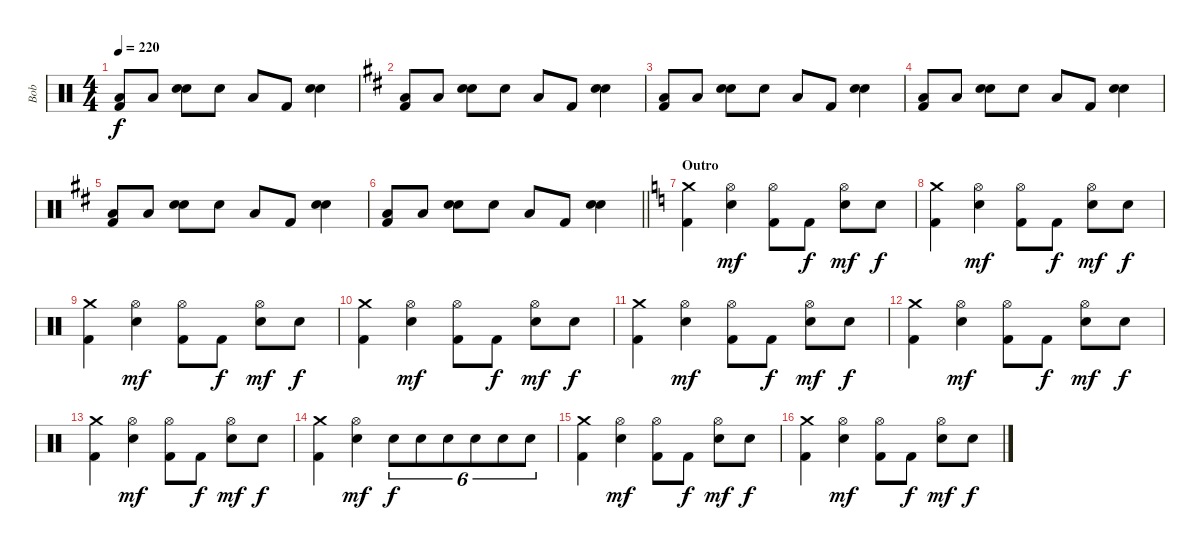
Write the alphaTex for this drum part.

\track ("Bob" "Bob") {instrument percussion}
\staff {score}
\articulation defaults
\ts (4 4)
\tempo 220
\clef neutral
\ks c
("Low Floor Tom (hit)" "Kick (hit) 2").8{dy f} "Low Floor Tom (hit)".8 ("Hand Clap (hit)" "Electric Snare (hit)").8 "Hand Clap (hit)".8 "Low Floor Tom (hit)".8 "Kick (hit) 2".8 ("Hand Clap (hit)" "Electric Snare (hit)").4 |
\ks d
("Low Floor Tom (hit)" "Kick (hit) 2").8 "Low Floor Tom (hit)".8 ("Hand Clap (hit)" "Electric Snare (hit)").8 "Hand Clap (hit)".8 "Low Floor Tom (hit)".8 "Kick (hit) 2".8 ("Hand Clap (hit)" "Electric Snare (hit)").4 |
("Low Floor Tom (hit)" "Kick (hit) 2").8 "Low Floor Tom (hit)".8 ("Hand Clap (hit)" "Electric Snare (hit)").8 "Hand Clap (hit)".8 "Low Floor Tom (hit)".8 "Kick (hit) 2".8 ("Hand Clap (hit)" "Electric Snare (hit)").4 |
("Low Floor Tom (hit)" "Kick (hit) 2").8 "Low Floor Tom (hit)".8 ("Hand Clap (hit)" "Electric Snare (hit)").8 "Hand Clap (hit)".8 "Low Floor Tom (hit)".8 "Kick (hit) 2".8 ("Hand Clap (hit)" "Electric Snare (hit)").4 |
("Low Floor Tom (hit)" "Kick (hit) 2").8 "Low Floor Tom (hit)".8 ("Hand Clap (hit)" "Electric Snare (hit)").8 "Hand Clap (hit)".8 "Low Floor Tom (hit)".8 "Kick (hit) 2".8 ("Hand Clap (hit)" "Electric Snare (hit)").4 |
\barLineRight lightlight
("Low Floor Tom (hit)" "Kick (hit) 2").8 "Low Floor Tom (hit)".8 ("Hand Clap (hit)" "Electric Snare (hit)").8 "Hand Clap (hit)".8 "Low Floor Tom (hit)".8 "Kick (hit) 2".8 ("Hand Clap (hit)" "Electric Snare (hit)").4 |
\section ("" "Outro")
\ks c
("Crash medium (hit)" "Kick (hit) 2").4 ("Hi-Hat (open)" "Electric Snare (hit)").4{dy mf} ("Hi-Hat (open)" "Kick (hit) 2").8 "Kick (hit) 2".8{dy f} ("Hi-Hat (open)" "Electric Snare (hit)").8{dy mf} "Electric Snare (hit)".8{dy f} |
("Crash medium (hit)" "Kick (hit) 2").4 ("Hi-Hat (open)" "Electric Snare (hit)").4{dy mf} ("Hi-Hat (open)" "Kick (hit) 2").8 "Kick (hit) 2".8{dy f} ("Hi-Hat (open)" "Electric Snare (hit)").8{dy mf} "Electric Snare (hit)".8{dy f} |
("Crash medium (hit)" "Kick (hit) 2").4 ("Hi-Hat (open)" "Electric Snare (hit)").4{dy mf} ("Hi-Hat (open)" "Kick (hit) 2").8 "Kick (hit) 2".8{dy f} ("Hi-Hat (open)" "Electric Snare (hit)").8{dy mf} "Electric Snare (hit)".8{dy f} |
("Crash medium (hit)" "Kick (hit) 2").4 ("Hi-Hat (open)" "Electric Snare (hit)").4{dy mf} ("Hi-Hat (open)" "Kick (hit) 2").8 "Kick (hit) 2".8{dy f} ("Hi-Hat (open)" "Electric Snare (hit)").8{dy mf} "Electric Snare (hit)".8{dy f} |
("Crash medium (hit)" "Kick (hit) 2").4 ("Hi-Hat (open)" "Electric Snare (hit)").4{dy mf} ("Hi-Hat (open)" "Kick (hit) 2").8 "Kick (hit) 2".8{dy f} ("Hi-Hat (open)" "Electric Snare (hit)").8{dy mf} "Electric Snare (hit)".8{dy f} |
("Crash medium (hit)" "Kick (hit) 2").4 ("Hi-Hat (open)" "Electric Snare (hit)").4{dy mf} ("Hi-Hat (open)" "Kick (hit) 2").8 "Kick (hit) 2".8{dy f} ("Hi-Hat (open)" "Electric Snare (hit)").8{dy mf} "Electric Snare (hit)".8{dy f} |
("Crash medium (hit)" "Kick (hit) 2").4 ("Hi-Hat (open)" "Electric Snare (hit)").4{dy mf} ("Hi-Hat (open)" "Kick (hit) 2").8 "Kick (hit) 2".8{dy f} ("Hi-Hat (open)" "Electric Snare (hit)").8{dy mf} "Electric Snare (hit)".8{dy f} |
("Crash medium (hit)" "Kick (hit) 2").4 ("Hi-Hat (open)" "Electric Snare (hit)").4{dy mf} "Electric Snare (hit)".8{tu (6 4) dy f} "Electric Snare (hit)".8{tu (6 4)} "Electric Snare (hit)".8{tu (6 4)} "Electric Snare (hit)".8{tu (6 4)} "Electric Snare (hit)".8{tu (6 4)} "Electric Snare (hit)".8{tu (6 4)} |
("Crash medium (hit)" "Kick (hit) 2").4 ("Hi-Hat (open)" "Electric Snare (hit)").4{dy mf} ("Hi-Hat (open)" "Kick (hit) 2").8 "Kick (hit) 2".8{dy f} ("Hi-Hat (open)" "Electric Snare (hit)").8{dy mf} "Electric Snare (hit)".8{dy f} |
("Crash medium (hit)" "Kick (hit) 2").4 ("Hi-Hat (open)" "Electric Snare (hit)").4{dy mf} ("Hi-Hat (open)" "Kick (hit) 2").8 "Kick (hit) 2".8{dy f} ("Hi-Hat (open)" "Electric Snare (hit)").8{dy mf} "Electric Snare (hit)".8{dy f}
